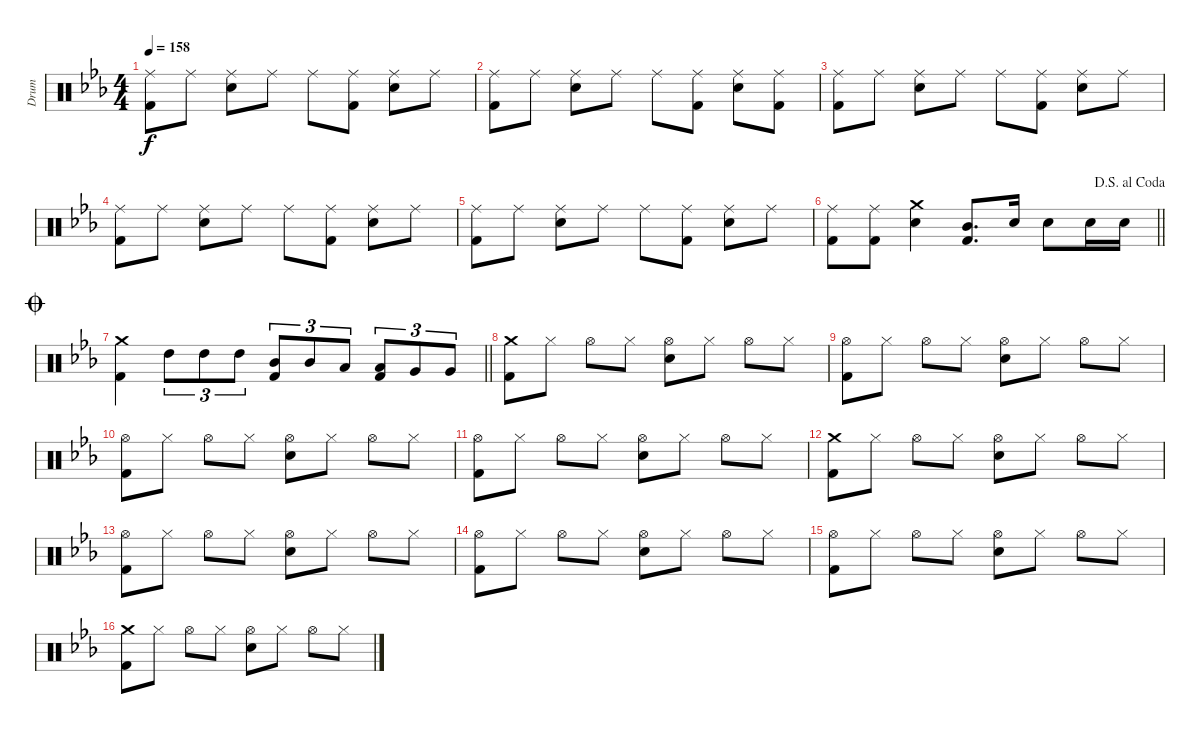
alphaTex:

\track ("Drum" "Drum") {instrument percussion}
\staff {score}
\articulation defaults
\ts (4 4)
\tempo 158
\clef neutral
\ks eb
("Ride (middle)" "Kick (hit) 2").8{dy f} "Ride (middle)".8 ("Ride (middle)" "Electric Snare (hit)").8 "Ride (middle)".8 "Ride (middle)".8 ("Ride (middle)" "Kick (hit) 2").8 ("Ride (middle)" "Electric Snare (hit)").8 "Ride (middle)".8 |
("Ride (middle)" "Kick (hit) 2").8 "Ride (middle)".8 ("Ride (middle)" "Electric Snare (hit)").8 "Ride (middle)".8 "Ride (middle)".8 ("Ride (middle)" "Kick (hit) 2").8 ("Ride (middle)" "Electric Snare (hit)").8 ("Ride (middle)" "Kick (hit) 2").8 |
("Ride (middle)" "Kick (hit) 2").8 "Ride (middle)".8 ("Ride (middle)" "Electric Snare (hit)").8 "Ride (middle)".8 "Ride (middle)".8 ("Ride (middle)" "Kick (hit) 2").8 ("Ride (middle)" "Electric Snare (hit)").8 "Ride (middle)".8 |
("Ride (middle)" "Kick (hit) 2").8 "Ride (middle)".8 ("Ride (middle)" "Electric Snare (hit)").8 "Ride (middle)".8 "Ride (middle)".8 ("Ride (middle)" "Kick (hit) 2").8 ("Ride (middle)" "Electric Snare (hit)").8 "Ride (middle)".8 |
("Ride (middle)" "Kick (hit) 2").8 "Ride (middle)".8 ("Ride (middle)" "Electric Snare (hit)").8 "Ride (middle)".8 "Ride (middle)".8 ("Ride (middle)" "Kick (hit) 2").8 ("Ride (middle)" "Electric Snare (hit)").8 "Ride (middle)".8 |
\jump dalsegnoalcoda
\barLineRight lightlight
("Ride (middle)" "Kick (hit) 2").8 ("Ride (middle)" "Kick (hit) 2").8 ("Crash medium (hit)" "Electric Snare (hit)").4 ("Mid Tom (hit)" "Kick (hit) 2").8{d} "Electric Snare (hit)".16 "Electric Snare (hit)".8 "Electric Snare (hit)".16 "Electric Snare (hit)".16 |
\jump coda
\barLineRight lightlight
("Crash medium (hit)" "Kick (hit) 2").4 "High Tom (hit)".8{tu (3 2)} "High Tom (hit)".8{tu (3 2)} "High Tom (hit)".8{tu (3 2)} ("Mid Tom (hit)" "Kick (hit) 2").8{tu (3 2)} "Mid Tom (hit)".8{tu (3 2)} "Low Tom (hit)".8{tu (3 2)} ("Low Tom (hit)" "Kick (hit) 2").8{tu (3 2)} "Very Low Tom (hit)".8{tu (3 2)} "Very Low Tom (hit)".8{tu (3 2)} |
("Crash medium (hit)" "Kick (hit) 2").8 "Hi-Hat (closed)".8 "Hi-Hat (open)".8 "Hi-Hat (closed)".8 ("Hi-Hat (open)" "Electric Snare (hit)").8 "Hi-Hat (closed)".8 "Hi-Hat (open)".8 "Hi-Hat (closed)".8 |
("Hi-Hat (open)" "Kick (hit) 2").8 "Hi-Hat (closed)".8 "Hi-Hat (open)".8 "Hi-Hat (closed)".8 ("Hi-Hat (open)" "Electric Snare (hit)").8 "Hi-Hat (closed)".8 "Hi-Hat (open)".8 "Hi-Hat (closed)".8 |
("Hi-Hat (open)" "Kick (hit) 2").8 "Hi-Hat (closed)".8 "Hi-Hat (open)".8 "Hi-Hat (closed)".8 ("Hi-Hat (open)" "Electric Snare (hit)").8 "Hi-Hat (closed)".8 "Hi-Hat (open)".8 "Hi-Hat (closed)".8 |
("Hi-Hat (open)" "Kick (hit) 2").8 "Hi-Hat (closed)".8 "Hi-Hat (open)".8 "Hi-Hat (closed)".8 ("Hi-Hat (open)" "Electric Snare (hit)").8 "Hi-Hat (closed)".8 "Hi-Hat (open)".8 "Hi-Hat (closed)".8 |
("Crash medium (hit)" "Kick (hit) 2").8 "Hi-Hat (closed)".8 "Hi-Hat (open)".8 "Hi-Hat (closed)".8 ("Hi-Hat (open)" "Electric Snare (hit)").8 "Hi-Hat (closed)".8 "Hi-Hat (open)".8 "Hi-Hat (closed)".8 |
("Hi-Hat (open)" "Kick (hit) 2").8 "Hi-Hat (closed)".8 "Hi-Hat (open)".8 "Hi-Hat (closed)".8 ("Hi-Hat (open)" "Electric Snare (hit)").8 "Hi-Hat (closed)".8 "Hi-Hat (open)".8 "Hi-Hat (closed)".8 |
("Hi-Hat (open)" "Kick (hit) 2").8 "Hi-Hat (closed)".8 "Hi-Hat (open)".8 "Hi-Hat (closed)".8 ("Hi-Hat (open)" "Electric Snare (hit)").8 "Hi-Hat (closed)".8 "Hi-Hat (open)".8 "Hi-Hat (closed)".8 |
("Hi-Hat (open)" "Kick (hit) 2").8 "Hi-Hat (closed)".8 "Hi-Hat (open)".8 "Hi-Hat (closed)".8 ("Hi-Hat (open)" "Electric Snare (hit)").8 "Hi-Hat (closed)".8 "Hi-Hat (open)".8 "Hi-Hat (closed)".8 |
("Crash medium (hit)" "Kick (hit) 2").8 "Hi-Hat (closed)".8 "Hi-Hat (open)".8 "Hi-Hat (closed)".8 ("Hi-Hat (open)" "Electric Snare (hit)").8 "Hi-Hat (closed)".8 "Hi-Hat (open)".8 "Hi-Hat (closed)".8
